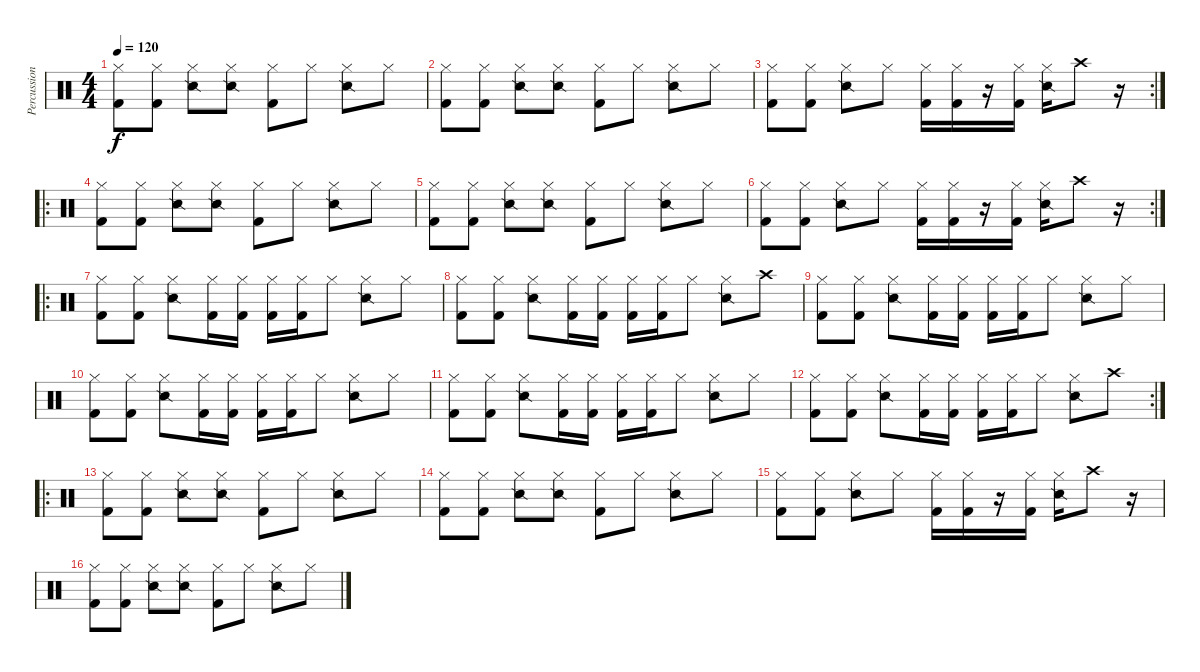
\track ("Percussion" "Percussion") {instrument percussion}
\staff {score}
\articulation defaults
\ts (4 4)
\tempo 120
\clef neutral
\ks c
("Hi-Hat (closed)" "Kick (hit) 2").8{dy f} ("Hi-Hat (closed)" "Kick (hit) 2").8 ("Hi-Hat (closed)" "Snare (side stick) 2").8 ("Hi-Hat (closed)" "Snare (side stick) 2").8 ("Hi-Hat (closed)" "Kick (hit) 2").8 "Hi-Hat (closed)".8 ("Hi-Hat (closed)" "Snare (side stick) 2").8 "Hi-Hat (closed)".8 |
("Hi-Hat (closed)" "Kick (hit) 2").8 ("Hi-Hat (closed)" "Kick (hit) 2").8 ("Hi-Hat (closed)" "Snare (side stick) 2").8 ("Hi-Hat (closed)" "Snare (side stick) 2").8 ("Hi-Hat (closed)" "Kick (hit) 2").8 "Hi-Hat (closed)".8 ("Hi-Hat (closed)" "Snare (side stick) 2").8 "Hi-Hat (closed)".8 |
\rc 2
("Hi-Hat (closed)" "Kick (hit) 2").8 ("Hi-Hat (closed)" "Kick (hit) 2").8 ("Hi-Hat (closed)" "Snare (side stick) 2").8 "Hi-Hat (closed)".8 ("Hi-Hat (closed)" "Kick (hit) 2").16 ("Hi-Hat (closed)" "Kick (hit) 2").16 r.16 ("Hi-Hat (closed)" "Kick (hit) 2").16 ("Hi-Hat (closed)" "Snare (side stick) 2").16 "Crash high (hit)".8 r.16 |
\ro
("Hi-Hat (closed)" "Kick (hit) 2").8 ("Hi-Hat (closed)" "Kick (hit) 2").8 ("Hi-Hat (closed)" "Snare (side stick) 2").8 ("Hi-Hat (closed)" "Snare (side stick) 2").8 ("Hi-Hat (closed)" "Kick (hit) 2").8 "Hi-Hat (closed)".8 ("Hi-Hat (closed)" "Snare (side stick) 2").8 "Hi-Hat (closed)".8 |
("Hi-Hat (closed)" "Kick (hit) 2").8 ("Hi-Hat (closed)" "Kick (hit) 2").8 ("Hi-Hat (closed)" "Snare (side stick) 2").8 ("Hi-Hat (closed)" "Snare (side stick) 2").8 ("Hi-Hat (closed)" "Kick (hit) 2").8 "Hi-Hat (closed)".8 ("Hi-Hat (closed)" "Snare (side stick) 2").8 "Hi-Hat (closed)".8 |
\rc 2
("Hi-Hat (closed)" "Kick (hit) 2").8 ("Hi-Hat (closed)" "Kick (hit) 2").8 ("Hi-Hat (closed)" "Snare (side stick) 2").8 "Hi-Hat (closed)".8 ("Hi-Hat (closed)" "Kick (hit) 2").16 ("Hi-Hat (closed)" "Kick (hit) 2").16 r.16 ("Hi-Hat (closed)" "Kick (hit) 2").16 ("Hi-Hat (closed)" "Snare (side stick) 2").16 "Crash high (hit)".8 r.16 |
\ro
("Hi-Hat (closed)" "Kick (hit) 2").8 ("Hi-Hat (closed)" "Kick (hit) 2").8 ("Hi-Hat (closed)" "Snare (side stick) 2").8 ("Hi-Hat (closed)" "Kick (hit) 2").16 ("Hi-Hat (closed)" "Kick (hit) 2").16 ("Hi-Hat (closed)" "Kick (hit) 2").16 ("Hi-Hat (closed)" "Kick (hit) 2").16 "Hi-Hat (closed)".8 ("Hi-Hat (closed)" "Snare (side stick) 2").8 "Hi-Hat (closed)".8 |
("Hi-Hat (closed)" "Kick (hit) 2").8 ("Hi-Hat (closed)" "Kick (hit) 2").8 ("Hi-Hat (closed)" "Snare (side stick) 2").8 ("Hi-Hat (closed)" "Kick (hit) 2").16 ("Hi-Hat (closed)" "Kick (hit) 2").16 ("Hi-Hat (closed)" "Kick (hit) 2").16 ("Hi-Hat (closed)" "Kick (hit) 2").16 "Hi-Hat (closed)".8 ("Hi-Hat (closed)" "Snare (side stick) 2").8 "Crash high (hit)".8 |
("Hi-Hat (closed)" "Kick (hit) 2").8 ("Hi-Hat (closed)" "Kick (hit) 2").8 ("Hi-Hat (closed)" "Snare (side stick) 2").8 ("Hi-Hat (closed)" "Kick (hit) 2").16 ("Hi-Hat (closed)" "Kick (hit) 2").16 ("Hi-Hat (closed)" "Kick (hit) 2").16 ("Hi-Hat (closed)" "Kick (hit) 2").16 "Hi-Hat (closed)".8 ("Hi-Hat (closed)" "Snare (side stick) 2").8 "Hi-Hat (closed)".8 |
("Hi-Hat (closed)" "Kick (hit) 2").8 ("Hi-Hat (closed)" "Kick (hit) 2").8 ("Hi-Hat (closed)" "Snare (side stick) 2").8 ("Hi-Hat (closed)" "Kick (hit) 2").16 ("Hi-Hat (closed)" "Kick (hit) 2").16 ("Hi-Hat (closed)" "Kick (hit) 2").16 ("Hi-Hat (closed)" "Kick (hit) 2").16 "Hi-Hat (closed)".8 ("Hi-Hat (closed)" "Snare (side stick) 2").8 "Hi-Hat (closed)".8 |
("Hi-Hat (closed)" "Kick (hit) 2").8 ("Hi-Hat (closed)" "Kick (hit) 2").8 ("Hi-Hat (closed)" "Snare (side stick) 2").8 ("Hi-Hat (closed)" "Kick (hit) 2").16 ("Hi-Hat (closed)" "Kick (hit) 2").16 ("Hi-Hat (closed)" "Kick (hit) 2").16 ("Hi-Hat (closed)" "Kick (hit) 2").16 "Hi-Hat (closed)".8 ("Hi-Hat (closed)" "Snare (side stick) 2").8 "Hi-Hat (closed)".8 |
\rc 2
("Hi-Hat (closed)" "Kick (hit) 2").8 ("Hi-Hat (closed)" "Kick (hit) 2").8 ("Hi-Hat (closed)" "Snare (side stick) 2").8 ("Hi-Hat (closed)" "Kick (hit) 2").16 ("Hi-Hat (closed)" "Kick (hit) 2").16 ("Hi-Hat (closed)" "Kick (hit) 2").16 ("Hi-Hat (closed)" "Kick (hit) 2").16 "Hi-Hat (closed)".8 ("Hi-Hat (closed)" "Snare (side stick) 2").8 "Crash high (hit)".8 |
\ro
("Hi-Hat (closed)" "Kick (hit) 2").8 ("Hi-Hat (closed)" "Kick (hit) 2").8 ("Hi-Hat (closed)" "Snare (side stick) 2").8 ("Hi-Hat (closed)" "Snare (side stick) 2").8 ("Hi-Hat (closed)" "Kick (hit) 2").8 "Hi-Hat (closed)".8 ("Hi-Hat (closed)" "Snare (side stick) 2").8 "Hi-Hat (closed)".8 |
("Hi-Hat (closed)" "Kick (hit) 2").8 ("Hi-Hat (closed)" "Kick (hit) 2").8 ("Hi-Hat (closed)" "Snare (side stick) 2").8 ("Hi-Hat (closed)" "Snare (side stick) 2").8 ("Hi-Hat (closed)" "Kick (hit) 2").8 "Hi-Hat (closed)".8 ("Hi-Hat (closed)" "Snare (side stick) 2").8 "Hi-Hat (closed)".8 |
("Hi-Hat (closed)" "Kick (hit) 2").8 ("Hi-Hat (closed)" "Kick (hit) 2").8 ("Hi-Hat (closed)" "Snare (side stick) 2").8 "Hi-Hat (closed)".8 ("Hi-Hat (closed)" "Kick (hit) 2").16 ("Hi-Hat (closed)" "Kick (hit) 2").16 r.16 ("Hi-Hat (closed)" "Kick (hit) 2").16 ("Hi-Hat (closed)" "Snare (side stick) 2").16 "Crash high (hit)".8 r.16 |
("Hi-Hat (closed)" "Kick (hit) 2").8 ("Hi-Hat (closed)" "Kick (hit) 2").8 ("Hi-Hat (closed)" "Snare (side stick) 2").8 ("Hi-Hat (closed)" "Snare (side stick) 2").8 ("Hi-Hat (closed)" "Kick (hit) 2").8 "Hi-Hat (closed)".8 ("Hi-Hat (closed)" "Snare (side stick) 2").8 "Hi-Hat (closed)".8
